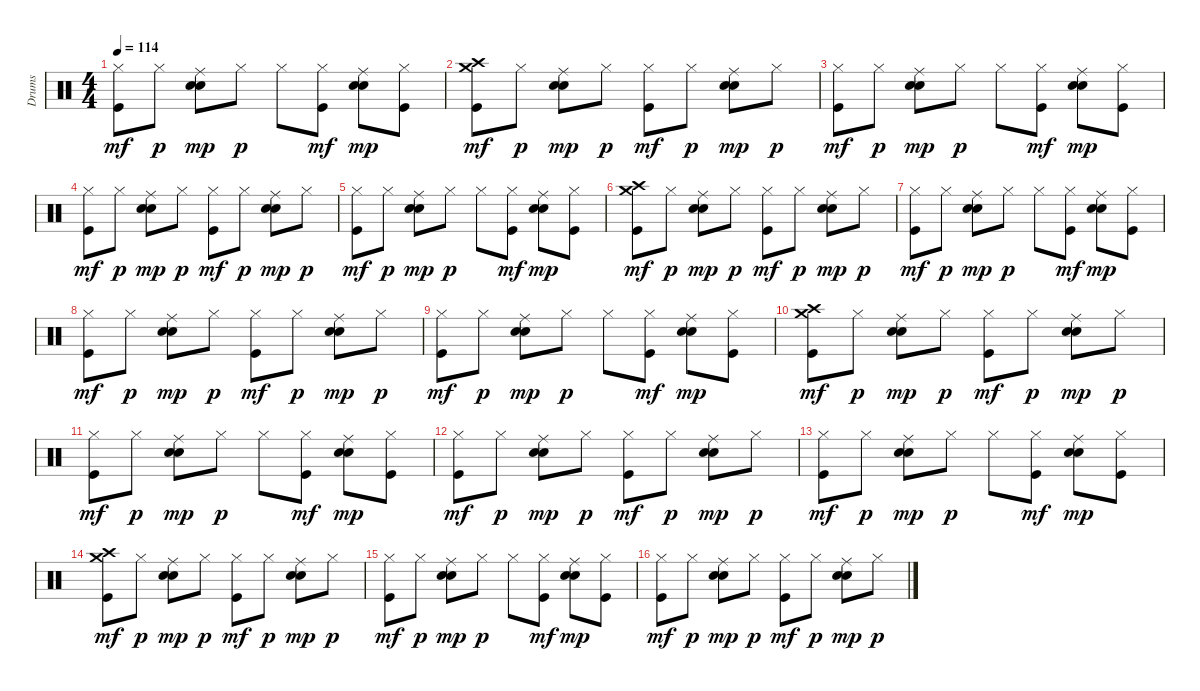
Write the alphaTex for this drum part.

\track ("Drums" "Drums") {instrument percussion}
\staff {score}
\articulation defaults
\ts (4 4)
\tempo 114
\clef neutral
\ks c
("Hi-Hat (closed)" "Kick (hit)").8{dy mf} "Hi-Hat (closed)".8{dy p} ("Ride (middle)" "Snare (hit) 2" "Electric Snare (hit)").8{dy mp} "Hi-Hat (closed)".8{dy p} "Hi-Hat (closed)".8 ("Hi-Hat (closed)" "Kick (hit)").8{dy mf} ("Ride (middle)" "Snare (hit) 2" "Electric Snare (hit)").8{dy mp} ("Hi-Hat (closed)" "Kick (hit)").8 |
("Crash medium (hit)" "Crash high (hit)" "Kick (hit)").8{dy mf} "Hi-Hat (closed)".8{dy p} ("Ride (middle)" "Snare (hit) 2" "Electric Snare (hit)").8{dy mp} "Hi-Hat (closed)".8{dy p} ("Hi-Hat (closed)" "Kick (hit)").8{dy mf} "Hi-Hat (closed)".8{dy p} ("Ride (middle)" "Snare (hit) 2" "Electric Snare (hit)").8{dy mp} "Hi-Hat (closed)".8{dy p} |
("Hi-Hat (closed)" "Kick (hit)").8{dy mf} "Hi-Hat (closed)".8{dy p} ("Ride (middle)" "Snare (hit) 2" "Electric Snare (hit)").8{dy mp} "Hi-Hat (closed)".8{dy p} "Hi-Hat (closed)".8 ("Hi-Hat (closed)" "Kick (hit)").8{dy mf} ("Ride (middle)" "Snare (hit) 2" "Electric Snare (hit)").8{dy mp} ("Hi-Hat (closed)" "Kick (hit)").8 |
("Hi-Hat (closed)" "Kick (hit)").8{dy mf} "Hi-Hat (closed)".8{dy p} ("Ride (middle)" "Snare (hit) 2" "Electric Snare (hit)").8{dy mp} "Hi-Hat (closed)".8{dy p} ("Hi-Hat (closed)" "Kick (hit)").8{dy mf} "Hi-Hat (closed)".8{dy p} ("Ride (middle)" "Snare (hit) 2" "Electric Snare (hit)").8{dy mp} "Hi-Hat (closed)".8{dy p} |
("Hi-Hat (closed)" "Kick (hit)").8{dy mf} "Hi-Hat (closed)".8{dy p} ("Ride (middle)" "Snare (hit) 2" "Electric Snare (hit)").8{dy mp} "Hi-Hat (closed)".8{dy p} "Hi-Hat (closed)".8 ("Hi-Hat (closed)" "Kick (hit)").8{dy mf} ("Ride (middle)" "Snare (hit) 2" "Electric Snare (hit)").8{dy mp} ("Hi-Hat (closed)" "Kick (hit)").8 |
("Crash medium (hit)" "Crash high (hit)" "Kick (hit)").8{dy mf} "Hi-Hat (closed)".8{dy p} ("Ride (middle)" "Snare (hit) 2" "Electric Snare (hit)").8{dy mp} "Hi-Hat (closed)".8{dy p} ("Hi-Hat (closed)" "Kick (hit)").8{dy mf} "Hi-Hat (closed)".8{dy p} ("Ride (middle)" "Snare (hit) 2" "Electric Snare (hit)").8{dy mp} "Hi-Hat (closed)".8{dy p} |
("Hi-Hat (closed)" "Kick (hit)").8{dy mf} "Hi-Hat (closed)".8{dy p} ("Ride (middle)" "Snare (hit) 2" "Electric Snare (hit)").8{dy mp} "Hi-Hat (closed)".8{dy p} "Hi-Hat (closed)".8 ("Hi-Hat (closed)" "Kick (hit)").8{dy mf} ("Ride (middle)" "Snare (hit) 2" "Electric Snare (hit)").8{dy mp} ("Hi-Hat (closed)" "Kick (hit)").8 |
("Hi-Hat (closed)" "Kick (hit)").8{dy mf} "Hi-Hat (closed)".8{dy p} ("Ride (middle)" "Snare (hit) 2" "Electric Snare (hit)").8{dy mp} "Hi-Hat (closed)".8{dy p} ("Hi-Hat (closed)" "Kick (hit)").8{dy mf} "Hi-Hat (closed)".8{dy p} ("Ride (middle)" "Snare (hit) 2" "Electric Snare (hit)").8{dy mp} "Hi-Hat (closed)".8{dy p} |
("Hi-Hat (closed)" "Kick (hit)").8{dy mf} "Hi-Hat (closed)".8{dy p} ("Ride (middle)" "Snare (hit) 2" "Electric Snare (hit)").8{dy mp} "Hi-Hat (closed)".8{dy p} "Hi-Hat (closed)".8 ("Hi-Hat (closed)" "Kick (hit)").8{dy mf} ("Ride (middle)" "Snare (hit) 2" "Electric Snare (hit)").8{dy mp} ("Hi-Hat (closed)" "Kick (hit)").8 |
("Crash medium (hit)" "Crash high (hit)" "Kick (hit)").8{dy mf} "Hi-Hat (closed)".8{dy p} ("Ride (middle)" "Snare (hit) 2" "Electric Snare (hit)").8{dy mp} "Hi-Hat (closed)".8{dy p} ("Hi-Hat (closed)" "Kick (hit)").8{dy mf} "Hi-Hat (closed)".8{dy p} ("Ride (middle)" "Snare (hit) 2" "Electric Snare (hit)").8{dy mp} "Hi-Hat (closed)".8{dy p} |
("Hi-Hat (closed)" "Kick (hit)").8{dy mf} "Hi-Hat (closed)".8{dy p} ("Ride (middle)" "Snare (hit) 2" "Electric Snare (hit)").8{dy mp} "Hi-Hat (closed)".8{dy p} "Hi-Hat (closed)".8 ("Hi-Hat (closed)" "Kick (hit)").8{dy mf} ("Ride (middle)" "Snare (hit) 2" "Electric Snare (hit)").8{dy mp} ("Hi-Hat (closed)" "Kick (hit)").8 |
("Hi-Hat (closed)" "Kick (hit)").8{dy mf} "Hi-Hat (closed)".8{dy p} ("Ride (middle)" "Snare (hit) 2" "Electric Snare (hit)").8{dy mp} "Hi-Hat (closed)".8{dy p} ("Hi-Hat (closed)" "Kick (hit)").8{dy mf} "Hi-Hat (closed)".8{dy p} ("Ride (middle)" "Snare (hit) 2" "Electric Snare (hit)").8{dy mp} "Hi-Hat (closed)".8{dy p} |
("Hi-Hat (closed)" "Kick (hit)").8{dy mf} "Hi-Hat (closed)".8{dy p} ("Ride (middle)" "Snare (hit) 2" "Electric Snare (hit)").8{dy mp} "Hi-Hat (closed)".8{dy p} "Hi-Hat (closed)".8 ("Hi-Hat (closed)" "Kick (hit)").8{dy mf} ("Ride (middle)" "Snare (hit) 2" "Electric Snare (hit)").8{dy mp} ("Hi-Hat (closed)" "Kick (hit)").8 |
("Crash medium (hit)" "Crash high (hit)" "Kick (hit)").8{dy mf} "Hi-Hat (closed)".8{dy p} ("Ride (middle)" "Snare (hit) 2" "Electric Snare (hit)").8{dy mp} "Hi-Hat (closed)".8{dy p} ("Hi-Hat (closed)" "Kick (hit)").8{dy mf} "Hi-Hat (closed)".8{dy p} ("Ride (middle)" "Snare (hit) 2" "Electric Snare (hit)").8{dy mp} "Hi-Hat (closed)".8{dy p} |
("Hi-Hat (closed)" "Kick (hit)").8{dy mf} "Hi-Hat (closed)".8{dy p} ("Ride (middle)" "Snare (hit) 2" "Electric Snare (hit)").8{dy mp} "Hi-Hat (closed)".8{dy p} "Hi-Hat (closed)".8 ("Hi-Hat (closed)" "Kick (hit)").8{dy mf} ("Ride (middle)" "Snare (hit) 2" "Electric Snare (hit)").8{dy mp} ("Hi-Hat (closed)" "Kick (hit)").8 |
("Hi-Hat (closed)" "Kick (hit)").8{dy mf} "Hi-Hat (closed)".8{dy p} ("Ride (middle)" "Snare (hit) 2" "Electric Snare (hit)").8{dy mp} "Hi-Hat (closed)".8{dy p} ("Hi-Hat (closed)" "Kick (hit)").8{dy mf} "Hi-Hat (closed)".8{dy p} ("Ride (middle)" "Snare (hit) 2" "Electric Snare (hit)").8{dy mp} "Hi-Hat (closed)".8{dy p}
